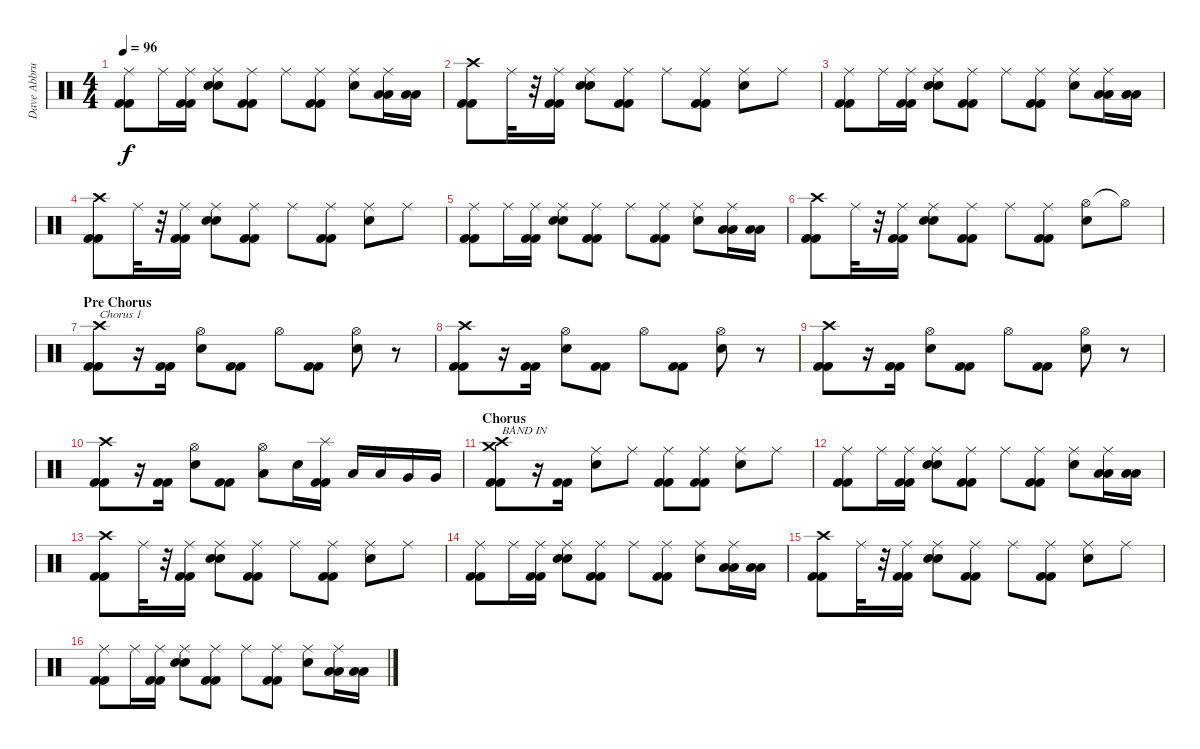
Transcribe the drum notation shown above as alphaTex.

\track ("Dave Abbruzzese" "Dave Abbru") {instrument percussion}
\staff {score}
\articulation defaults
\ts (4 4)
\tempo 96
\clef neutral
\ks c
("Ride (middle)" "Kick (hit) 2" "Kick (hit) 2").8{dy f} "Ride (middle)".16 ("Ride (middle)" "Kick (hit) 2" "Kick (hit) 2").16 ("Ride (middle)" "Electric Snare (hit)" "Electric Snare (hit)").8 ("Ride (middle)" "Kick (hit) 2" "Kick (hit) 2").8 "Ride (middle)".8 ("Ride (middle)" "Kick (hit) 2" "Kick (hit) 2").8 ("Ride (middle)" "Electric Snare (hit)").8 ("Ride (middle)" "Low Tom (hit)" "Low Tom (hit)").16 ("Low Tom (hit)" "Low Tom (hit)").16 |
("Crash high (hit)" "Kick (hit) 2" "Kick (hit) 2").8 "Ride (middle)".32 r.32 ("Ride (middle)" "Kick (hit) 2" "Kick (hit) 2").16 ("Ride (middle)" "Electric Snare (hit)" "Electric Snare (hit)").8 ("Ride (middle)" "Kick (hit) 2" "Kick (hit) 2").8 "Ride (middle)".8 ("Ride (middle)" "Kick (hit) 2" "Kick (hit) 2").8 ("Ride (middle)" "Electric Snare (hit)").8 "Ride (middle)".8 |
("Ride (middle)" "Kick (hit) 2" "Kick (hit) 2").8 "Ride (middle)".16 ("Ride (middle)" "Kick (hit) 2" "Kick (hit) 2").16 ("Ride (middle)" "Electric Snare (hit)" "Electric Snare (hit)").8 ("Ride (middle)" "Kick (hit) 2" "Kick (hit) 2").8 "Ride (middle)".8 ("Ride (middle)" "Kick (hit) 2" "Kick (hit) 2").8 ("Ride (middle)" "Electric Snare (hit)").8 ("Ride (middle)" "Low Tom (hit)" "Low Tom (hit)").16 ("Low Tom (hit)" "Low Tom (hit)").16 |
("Crash high (hit)" "Kick (hit) 2" "Kick (hit) 2").8 "Ride (middle)".32 r.32 ("Ride (middle)" "Kick (hit) 2" "Kick (hit) 2").16 ("Ride (middle)" "Electric Snare (hit)" "Electric Snare (hit)").8 ("Ride (middle)" "Kick (hit) 2" "Kick (hit) 2").8 "Ride (middle)".8 ("Ride (middle)" "Kick (hit) 2" "Kick (hit) 2").8 ("Ride (middle)" "Electric Snare (hit)").8 "Ride (middle)".8 |
("Ride (middle)" "Kick (hit) 2" "Kick (hit) 2").8 "Ride (middle)".16 ("Ride (middle)" "Kick (hit) 2" "Kick (hit) 2").16 ("Ride (middle)" "Electric Snare (hit)" "Electric Snare (hit)").8 ("Ride (middle)" "Kick (hit) 2" "Kick (hit) 2").8 "Ride (middle)".8 ("Ride (middle)" "Kick (hit) 2" "Kick (hit) 2").8 ("Ride (middle)" "Electric Snare (hit)").8 ("Ride (middle)" "Low Tom (hit)" "Low Tom (hit)").16 ("Low Tom (hit)" "Low Tom (hit)").16 |
("Crash high (hit)" "Kick (hit) 2" "Kick (hit) 2").8 "Ride (middle)".32 r.32 ("Ride (middle)" "Kick (hit) 2" "Kick (hit) 2").16 ("Ride (middle)" "Electric Snare (hit)" "Electric Snare (hit)").8 ("Ride (middle)" "Kick (hit) 2" "Kick (hit) 2").8 "Ride (middle)".8 ("Ride (middle)" "Kick (hit) 2" "Kick (hit) 2").8 ("Hi-Hat (open)" "Electric Snare (hit)").8 "Hi-Hat (open)"{t}.8 |
\section ("" "Pre Chorus")
("Crash high (hit)" "Kick (hit) 2" "Kick (hit) 2").8{txt "Chorus 1"} r.16 ("Kick (hit) 2" "Kick (hit) 2").16 ("Hi-Hat (open)" "Electric Snare (hit)").8 ("Kick (hit) 2" "Kick (hit) 2").8 "Hi-Hat (open)".8 ("Kick (hit) 2" "Kick (hit) 2").8 ("Hi-Hat (open)" "Electric Snare (hit)").8 r.8 |
("Crash high (hit)" "Kick (hit) 2" "Kick (hit) 2").8 r.16 ("Kick (hit) 2" "Kick (hit) 2").16 ("Hi-Hat (open)" "Electric Snare (hit)").8 ("Kick (hit) 2" "Kick (hit) 2").8 "Hi-Hat (open)".8 ("Kick (hit) 2" "Kick (hit) 2").8 ("Hi-Hat (open)" "Electric Snare (hit)").8 r.8 |
("Crash high (hit)" "Kick (hit) 2" "Kick (hit) 2").8 r.16 ("Kick (hit) 2" "Kick (hit) 2").16 ("Hi-Hat (open)" "Electric Snare (hit)").8 ("Kick (hit) 2" "Kick (hit) 2").8 "Hi-Hat (open)".8 ("Kick (hit) 2" "Kick (hit) 2").8 ("Hi-Hat (open)" "Electric Snare (hit)").8 r.8 |
("Crash high (hit)" "Kick (hit) 2" "Kick (hit) 2").8 r.16 ("Kick (hit) 2" "Kick (hit) 2").16 ("Hi-Hat (open)" "Electric Snare (hit)").8 ("Kick (hit) 2" "Kick (hit) 2").8 ("Hi-Hat (open)" "Low Tom (hit)").8 "Electric Snare (hit)".16 ("Splash (hit)" "Kick (hit) 2" "Kick (hit) 2").16 "Low Tom (hit)".16 "Low Tom (hit)".16 "Very Low Tom (hit)".16 "Very Low Tom (hit)".16 |
\section ("" "Chorus")
("Crash medium (hit)" "Crash high (hit)" "Kick (hit) 2" "Kick (hit) 2").8{txt "BAND IN"} r.16 ("Kick (hit) 2" "Kick (hit) 2").16 ("Ride (middle)" "Electric Snare (hit)").8 "Ride (middle)".8 ("Ride (middle)" "Kick (hit) 2" "Kick (hit) 2").8 ("Ride (middle)" "Kick (hit) 2" "Kick (hit) 2").8 ("Ride (middle)" "Electric Snare (hit)").8 "Ride (middle)".8 |
("Ride (middle)" "Kick (hit) 2" "Kick (hit) 2").8 "Ride (middle)".16 ("Ride (middle)" "Kick (hit) 2" "Kick (hit) 2").16 ("Ride (middle)" "Electric Snare (hit)" "Electric Snare (hit)").8 ("Ride (middle)" "Kick (hit) 2" "Kick (hit) 2").8 "Ride (middle)".8 ("Ride (middle)" "Kick (hit) 2" "Kick (hit) 2").8 ("Ride (middle)" "Electric Snare (hit)").8 ("Ride (middle)" "Low Tom (hit)" "Low Tom (hit)").16 ("Low Tom (hit)" "Low Tom (hit)").16 |
("Crash high (hit)" "Kick (hit) 2" "Kick (hit) 2").8 "Ride (middle)".32 r.32 ("Ride (middle)" "Kick (hit) 2" "Kick (hit) 2").16 ("Ride (middle)" "Electric Snare (hit)" "Electric Snare (hit)").8 ("Ride (middle)" "Kick (hit) 2" "Kick (hit) 2").8 "Ride (middle)".8 ("Ride (middle)" "Kick (hit) 2" "Kick (hit) 2").8 ("Ride (middle)" "Electric Snare (hit)").8 "Ride (middle)".8 |
("Ride (middle)" "Kick (hit) 2" "Kick (hit) 2").8 "Ride (middle)".16 ("Ride (middle)" "Kick (hit) 2" "Kick (hit) 2").16 ("Ride (middle)" "Electric Snare (hit)" "Electric Snare (hit)").8 ("Ride (middle)" "Kick (hit) 2" "Kick (hit) 2").8 "Ride (middle)".8 ("Ride (middle)" "Kick (hit) 2" "Kick (hit) 2").8 ("Ride (middle)" "Electric Snare (hit)").8 ("Ride (middle)" "Low Tom (hit)" "Low Tom (hit)").16 ("Low Tom (hit)" "Low Tom (hit)").16 |
("Crash high (hit)" "Kick (hit) 2" "Kick (hit) 2").8 "Ride (middle)".32 r.32 ("Ride (middle)" "Kick (hit) 2" "Kick (hit) 2").16 ("Ride (middle)" "Electric Snare (hit)" "Electric Snare (hit)").8 ("Ride (middle)" "Kick (hit) 2" "Kick (hit) 2").8 "Ride (middle)".8 ("Ride (middle)" "Kick (hit) 2" "Kick (hit) 2").8 ("Ride (middle)" "Electric Snare (hit)").8 "Ride (middle)".8 |
("Ride (middle)" "Kick (hit) 2" "Kick (hit) 2").8 "Ride (middle)".16 ("Ride (middle)" "Kick (hit) 2" "Kick (hit) 2").16 ("Ride (middle)" "Electric Snare (hit)" "Electric Snare (hit)").8 ("Ride (middle)" "Kick (hit) 2" "Kick (hit) 2").8 "Ride (middle)".8 ("Ride (middle)" "Kick (hit) 2" "Kick (hit) 2").8 ("Ride (middle)" "Electric Snare (hit)").8 ("Ride (middle)" "Low Tom (hit)" "Low Tom (hit)").16 ("Low Tom (hit)" "Low Tom (hit)").16
